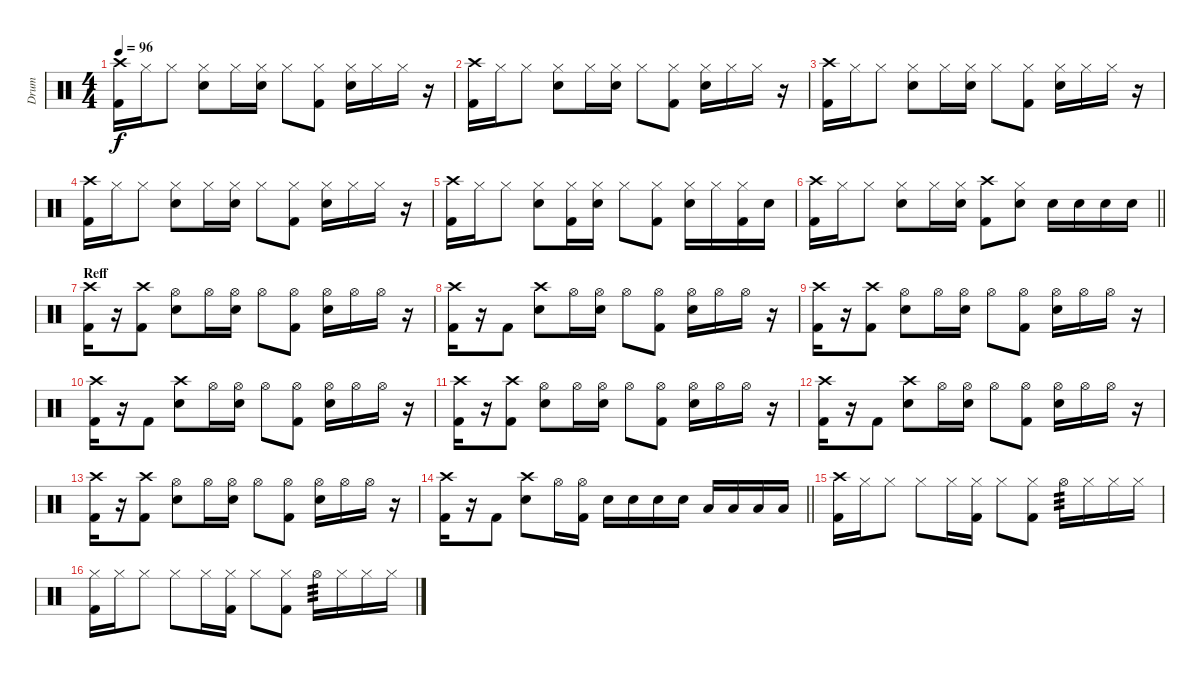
\track ("Drum" "Drum") {instrument percussion}
\staff {score}
\articulation defaults
\ts (4 4)
\tempo 96
\clef neutral
\ks c
("Crash high (hit)" "Kick (hit) 2").16{dy f} "Hi-Hat (closed)".16 "Hi-Hat (closed)".8 ("Hi-Hat (closed)" "Snare (hit) 2").8 "Hi-Hat (closed)".16 ("Hi-Hat (closed)" "Snare (hit) 2").16 "Hi-Hat (closed)".8 ("Hi-Hat (closed)" "Kick (hit) 2").8 ("Hi-Hat (closed)" "Snare (hit) 2").16 "Hi-Hat (closed)".16 "Hi-Hat (closed)".16 r.16 |
("Crash high (hit)" "Kick (hit) 2").16 "Hi-Hat (closed)".16 "Hi-Hat (closed)".8 ("Hi-Hat (closed)" "Snare (hit) 2").8 "Hi-Hat (closed)".16 ("Hi-Hat (closed)" "Snare (hit) 2").16 "Hi-Hat (closed)".8 ("Hi-Hat (closed)" "Kick (hit) 2").8 ("Hi-Hat (closed)" "Snare (hit) 2").16 "Hi-Hat (closed)".16 "Hi-Hat (closed)".16 r.16 |
("Crash high (hit)" "Kick (hit) 2").16 "Hi-Hat (closed)".16 "Hi-Hat (closed)".8 ("Hi-Hat (closed)" "Snare (hit) 2").8 "Hi-Hat (closed)".16 ("Hi-Hat (closed)" "Snare (hit) 2").16 "Hi-Hat (closed)".8 ("Hi-Hat (closed)" "Kick (hit) 2").8 ("Hi-Hat (closed)" "Snare (hit) 2").16 "Hi-Hat (closed)".16 "Hi-Hat (closed)".16 r.16 |
("Crash high (hit)" "Kick (hit) 2").16 "Hi-Hat (closed)".16 "Hi-Hat (closed)".8 ("Hi-Hat (closed)" "Snare (hit) 2").8 "Hi-Hat (closed)".16 ("Hi-Hat (closed)" "Snare (hit) 2").16 "Hi-Hat (closed)".8 ("Hi-Hat (closed)" "Kick (hit) 2").8 ("Hi-Hat (closed)" "Snare (hit) 2").16 "Hi-Hat (closed)".16 "Hi-Hat (closed)".16 r.16 |
("Crash high (hit)" "Kick (hit) 2").16 "Hi-Hat (closed)".16 "Hi-Hat (closed)".8 ("Hi-Hat (closed)" "Snare (hit) 2").8 ("Hi-Hat (closed)" "Kick (hit) 2").16 ("Hi-Hat (closed)" "Snare (hit) 2").16 "Hi-Hat (closed)".8 ("Hi-Hat (closed)" "Kick (hit) 2").8 ("Hi-Hat (closed)" "Snare (hit) 2").16 "Hi-Hat (closed)".16 ("Hi-Hat (closed)" "Kick (hit) 2").16 "Snare (hit) 2".16 |
\barLineRight lightlight
("Crash high (hit)" "Kick (hit) 2").16 "Hi-Hat (closed)".16 "Hi-Hat (closed)".8 ("Hi-Hat (closed)" "Snare (hit) 2").8 "Hi-Hat (closed)".16 ("Hi-Hat (closed)" "Snare (hit) 2").16 ("Crash high (hit)" "Kick (hit) 2").8 ("Hi-Hat (closed)" "Snare (hit) 2").8 "Snare (hit) 2".16 "Snare (hit) 2".16 "Snare (hit) 2".16 "Snare (hit) 2".16 |
\section ("" "Reff")
("Crash high (hit)" "Kick (hit) 2").16 r.16 ("Crash high (hit)" "Kick (hit) 2").8 ("Hi-Hat (open)" "Snare (hit) 2").8 "Hi-Hat (open)".16 ("Hi-Hat (open)" "Snare (hit) 2").16 "Hi-Hat (open)".8 ("Hi-Hat (open)" "Kick (hit) 2").8 ("Hi-Hat (open)" "Snare (hit) 2").16 "Hi-Hat (open)".16 "Hi-Hat (open)".16 r.16 |
("Crash high (hit)" "Kick (hit) 2").16 r.16 "Kick (hit) 2".8 ("Crash high (hit)" "Snare (hit) 2").8 "Hi-Hat (open)".16 ("Hi-Hat (open)" "Snare (hit) 2").16 "Hi-Hat (open)".8 ("Hi-Hat (open)" "Kick (hit) 2").8 ("Hi-Hat (open)" "Snare (hit) 2").16 "Hi-Hat (open)".16 "Hi-Hat (open)".16 r.16 |
("Crash high (hit)" "Kick (hit) 2").16 r.16 ("Crash high (hit)" "Kick (hit) 2").8 ("Hi-Hat (open)" "Snare (hit) 2").8 "Hi-Hat (open)".16 ("Hi-Hat (open)" "Snare (hit) 2").16 "Hi-Hat (open)".8 ("Hi-Hat (open)" "Kick (hit) 2").8 ("Hi-Hat (open)" "Snare (hit) 2").16 "Hi-Hat (open)".16 "Hi-Hat (open)".16 r.16 |
("Crash high (hit)" "Kick (hit) 2").16 r.16 "Kick (hit) 2".8 ("Crash high (hit)" "Snare (hit) 2").8 "Hi-Hat (open)".16 ("Hi-Hat (open)" "Snare (hit) 2").16 "Hi-Hat (open)".8 ("Hi-Hat (open)" "Kick (hit) 2").8 ("Hi-Hat (open)" "Snare (hit) 2").16 "Hi-Hat (open)".16 "Hi-Hat (open)".16 r.16 |
("Crash high (hit)" "Kick (hit) 2").16 r.16 ("Crash high (hit)" "Kick (hit) 2").8 ("Hi-Hat (open)" "Snare (hit) 2").8 "Hi-Hat (open)".16 ("Hi-Hat (open)" "Snare (hit) 2").16 "Hi-Hat (open)".8 ("Hi-Hat (open)" "Kick (hit) 2").8 ("Hi-Hat (open)" "Snare (hit) 2").16 "Hi-Hat (open)".16 "Hi-Hat (open)".16 r.16 |
("Crash high (hit)" "Kick (hit) 2").16 r.16 "Kick (hit) 2".8 ("Crash high (hit)" "Snare (hit) 2").8 "Hi-Hat (open)".16 ("Hi-Hat (open)" "Snare (hit) 2").16 "Hi-Hat (open)".8 ("Hi-Hat (open)" "Kick (hit) 2").8 ("Hi-Hat (open)" "Snare (hit) 2").16 "Hi-Hat (open)".16 "Hi-Hat (open)".16 r.16 |
("Crash high (hit)" "Kick (hit) 2").16 r.16 ("Crash high (hit)" "Kick (hit) 2").8 ("Hi-Hat (open)" "Snare (hit) 2").8 "Hi-Hat (open)".16 ("Hi-Hat (open)" "Snare (hit) 2").16 "Hi-Hat (open)".8 ("Hi-Hat (open)" "Kick (hit) 2").8 ("Hi-Hat (open)" "Snare (hit) 2").16 "Hi-Hat (open)".16 "Hi-Hat (open)".16 r.16 |
\barLineRight lightlight
("Crash high (hit)" "Kick (hit) 2").16 r.16 "Kick (hit) 2".8 ("Crash high (hit)" "Snare (hit) 2").8 "Hi-Hat (open)".16 ("Hi-Hat (open)" "Kick (hit) 2").16 "Snare (hit) 2".16 "Snare (hit) 2".16 "Snare (hit) 2".16 "Snare (hit) 2".16 "Low Tom (hit)".16 "Low Tom (hit)".16 "Low Tom (hit)".16 "Low Tom (hit)".16 |
\section ("" "")
("Crash high (hit)" "Kick (hit) 2").16 "Hi-Hat (closed)".16 "Hi-Hat (closed)".8 "Hi-Hat (closed)".8 "Hi-Hat (closed)".16 ("Hi-Hat (closed)" "Kick (hit) 2").16 "Hi-Hat (closed)".8 ("Hi-Hat (closed)" "Kick (hit) 2").8 "Hi-Hat (open)".16{tp 3} "Hi-Hat (closed)".16 "Hi-Hat (closed)".16 "Hi-Hat (closed)".16 |
("Hi-Hat (closed)" "Kick (hit) 2").16 "Hi-Hat (closed)".16 "Hi-Hat (closed)".8 "Hi-Hat (closed)".8 "Hi-Hat (closed)".16 ("Hi-Hat (closed)" "Kick (hit) 2").16 "Hi-Hat (closed)".8 ("Hi-Hat (closed)" "Kick (hit) 2").8 "Hi-Hat (open)".16{tp 3} "Hi-Hat (closed)".16 "Hi-Hat (closed)".16 "Hi-Hat (closed)".16
